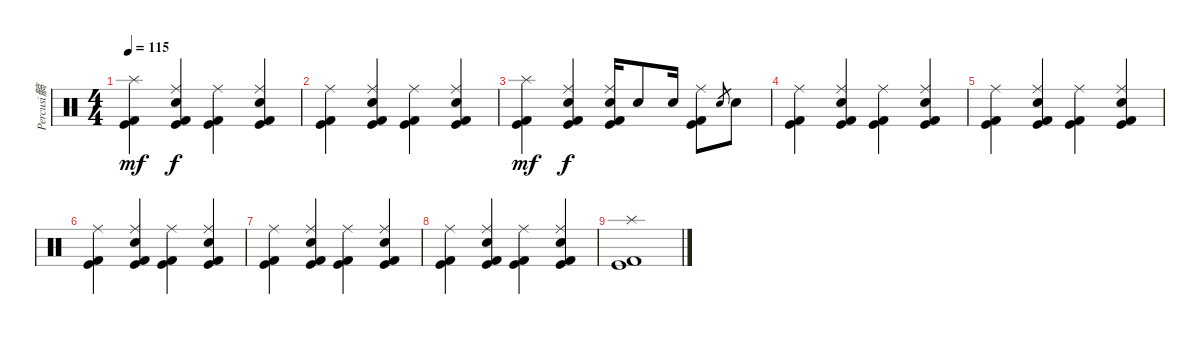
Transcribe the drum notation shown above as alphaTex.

\track ("Percusi髇" "Percusi髇") {instrument percussion}
\staff {score}
\articulation defaults
\ts (4 4)
\tempo 115
\clef neutral
\ks c
("Splash (hit)" "Kick (hit) 2" "Kick (hit)").4{dy mf} ("Ride (middle)" "Electric Snare (hit)" "Kick (hit) 2" "Kick (hit)").4{dy f} ("Ride (middle)" "Kick (hit) 2" "Kick (hit)").4 ("Ride (middle)" "Electric Snare (hit)" "Kick (hit) 2" "Kick (hit)").4 |
("Ride (middle)" "Kick (hit) 2" "Kick (hit)").4 ("Ride (middle)" "Electric Snare (hit)" "Kick (hit) 2" "Kick (hit)").4 ("Ride (middle)" "Kick (hit) 2" "Kick (hit)").4 ("Ride (middle)" "Electric Snare (hit)" "Kick (hit) 2" "Kick (hit)").4 |
("Splash (hit)" "Kick (hit) 2" "Kick (hit)").4{dy mf} ("Ride (middle)" "Electric Snare (hit)" "Kick (hit) 2" "Kick (hit)").4{dy f} ("Ride (middle)" "Electric Snare (hit)" "Kick (hit) 2" "Kick (hit)").16 "Electric Snare (hit)".8 "Electric Snare (hit)".16 ("Ride (middle)" "Kick (hit) 2" "Kick (hit)").8 "Electric Snare (hit)".8{gr} "Electric Snare (hit)".8 |
("Ride (middle)" "Kick (hit) 2" "Kick (hit)").4 ("Ride (middle)" "Electric Snare (hit)" "Kick (hit) 2" "Kick (hit)").4 ("Ride (middle)" "Kick (hit) 2" "Kick (hit)").4 ("Ride (middle)" "Electric Snare (hit)" "Kick (hit) 2" "Kick (hit)").4 |
("Ride (middle)" "Kick (hit) 2" "Kick (hit)").4 ("Ride (middle)" "Electric Snare (hit)" "Kick (hit) 2" "Kick (hit)").4 ("Ride (middle)" "Kick (hit) 2" "Kick (hit)").4 ("Ride (middle)" "Electric Snare (hit)" "Kick (hit) 2" "Kick (hit)").4 |
("Ride (middle)" "Kick (hit) 2" "Kick (hit)").4 ("Ride (middle)" "Electric Snare (hit)" "Kick (hit) 2" "Kick (hit)").4 ("Ride (middle)" "Kick (hit) 2" "Kick (hit)").4 ("Ride (middle)" "Electric Snare (hit)" "Kick (hit) 2" "Kick (hit)").4 |
("Ride (middle)" "Kick (hit) 2" "Kick (hit)").4 ("Ride (middle)" "Electric Snare (hit)" "Kick (hit) 2" "Kick (hit)").4 ("Ride (middle)" "Kick (hit) 2" "Kick (hit)").4 ("Ride (middle)" "Electric Snare (hit)" "Kick (hit) 2" "Kick (hit)").4 |
("Ride (middle)" "Kick (hit) 2" "Kick (hit)").4 ("Ride (middle)" "Electric Snare (hit)" "Kick (hit) 2" "Kick (hit)").4 ("Ride (middle)" "Kick (hit) 2" "Kick (hit)").4 ("Ride (middle)" "Electric Snare (hit)" "Kick (hit) 2" "Kick (hit)").4 |
("Splash (hit)" "Kick (hit) 2" "Kick (hit)").1
